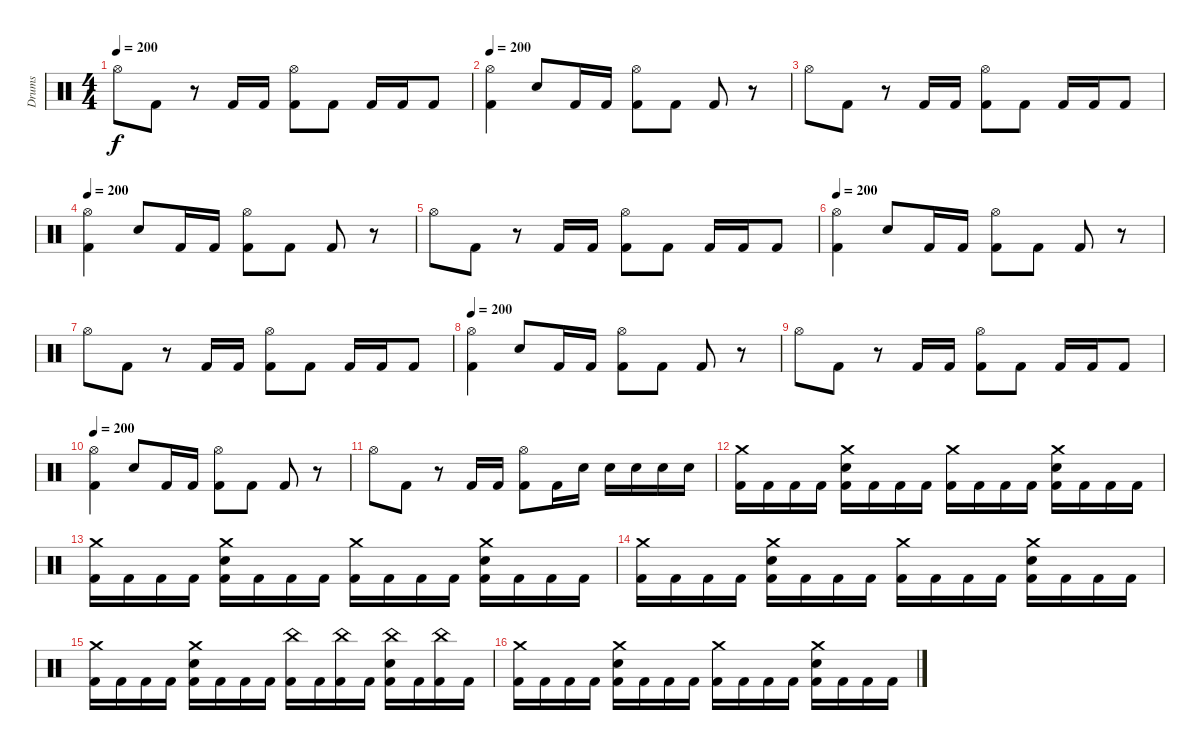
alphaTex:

\track ("Drums" "Drums") {instrument percussion}
\staff {score}
\articulation defaults
\ts (4 4)
\tempo 200
\clef neutral
\ks c "Hi-Hat (open)".8{dy f} "Kick (hit) 2".8
r.8 "Kick (hit) 2".16 "Kick (hit) 2".16 ("Hi-Hat (open)" "Kick (hit) 2").8 "Kick (hit) 2".8 "Kick (hit) 2".16 "Kick (hit) 2".16 "Kick (hit) 2".8 |
\tempo 200
("Hi-Hat (open)" "Kick (hit) 2").4 "Electric Snare (hit)".8 "Kick (hit) 2".16 "Kick (hit) 2".16 ("Hi-Hat (open)" "Kick (hit) 2").8 "Kick (hit) 2".8 "Kick (hit) 2".8 r.8 |
"Hi-Hat (open)".8 "Kick (hit) 2".8 r.8 "Kick (hit) 2".16 "Kick (hit) 2".16 ("Hi-Hat (open)" "Kick (hit) 2").8 "Kick (hit) 2".8 "Kick (hit) 2".16 "Kick (hit) 2".16 "Kick (hit) 2".8 |
\tempo 200
("Hi-Hat (open)" "Kick (hit) 2").4 "Electric Snare (hit)".8 "Kick (hit) 2".16 "Kick (hit) 2".16 ("Hi-Hat (open)" "Kick (hit) 2").8 "Kick (hit) 2".8 "Kick (hit) 2".8 r.8 |
"Hi-Hat (open)".8 "Kick (hit) 2".8 r.8 "Kick (hit) 2".16 "Kick (hit) 2".16 ("Hi-Hat (open)" "Kick (hit) 2").8 "Kick (hit) 2".8 "Kick (hit) 2".16 "Kick (hit) 2".16 "Kick (hit) 2".8 |
\tempo 200
("Hi-Hat (open)" "Kick (hit) 2").4 "Electric Snare (hit)".8 "Kick (hit) 2".16 "Kick (hit) 2".16 ("Hi-Hat (open)" "Kick (hit) 2").8 "Kick (hit) 2".8 "Kick (hit) 2".8 r.8 |
"Hi-Hat (open)".8 "Kick (hit) 2".8 r.8 "Kick (hit) 2".16 "Kick (hit) 2".16 ("Hi-Hat (open)" "Kick (hit) 2").8 "Kick (hit) 2".8 "Kick (hit) 2".16 "Kick (hit) 2".16 "Kick (hit) 2".8 |
\tempo 200
("Hi-Hat (open)" "Kick (hit) 2").4 "Electric Snare (hit)".8 "Kick (hit) 2".16 "Kick (hit) 2".16 ("Hi-Hat (open)" "Kick (hit) 2").8 "Kick (hit) 2".8 "Kick (hit) 2".8 r.8 |
"Hi-Hat (open)".8 "Kick (hit) 2".8 r.8 "Kick (hit) 2".16 "Kick (hit) 2".16 ("Hi-Hat (open)" "Kick (hit) 2").8 "Kick (hit) 2".8 "Kick (hit) 2".16 "Kick (hit) 2".16 "Kick (hit) 2".8 |
\tempo 200
("Hi-Hat (open)" "Kick (hit) 2").4 "Electric Snare (hit)".8 "Kick (hit) 2".16 "Kick (hit) 2".16 ("Hi-Hat (open)" "Kick (hit) 2").8 "Kick (hit) 2".8 "Kick (hit) 2".8 r.8 |
"Hi-Hat (open)".8 "Kick (hit) 2".8 r.8 "Kick (hit) 2".16 "Kick (hit) 2".16 ("Hi-Hat (open)" "Kick (hit) 2").8 "Kick (hit) 2".16 "Electric Snare (hit)".16 "Electric Snare (hit)".16 "Electric Snare (hit)".16 "Electric Snare (hit)".16 "Electric Snare (hit)".16 |
("Crash medium (hit)" "Kick (hit) 2").16 "Kick (hit) 2".16 "Kick (hit) 2".16 "Kick (hit) 2".16 ("Crash medium (hit)" "Electric Snare (hit)" "Kick (hit) 2").16 "Kick (hit) 2".16 "Kick (hit) 2".16 "Kick (hit) 2".16 ("Crash medium (hit)" "Kick (hit) 2").16 "Kick (hit) 2".16 "Kick (hit) 2".16 "Kick (hit) 2".16 ("Crash medium (hit)" "Electric Snare (hit)" "Kick (hit) 2").16 "Kick (hit) 2".16 "Kick (hit) 2".16 "Kick (hit) 2".16 |
("Crash medium (hit)" "Kick (hit) 2").16 "Kick (hit) 2".16 "Kick (hit) 2".16 "Kick (hit) 2".16 ("Crash medium (hit)" "Electric Snare (hit)" "Kick (hit) 2").16 "Kick (hit) 2".16 "Kick (hit) 2".16 "Kick (hit) 2".16 ("Crash medium (hit)" "Kick (hit) 2").16 "Kick (hit) 2".16 "Kick (hit) 2".16 "Kick (hit) 2".16 ("Crash medium (hit)" "Electric Snare (hit)" "Kick (hit) 2").16 "Kick (hit) 2".16 "Kick (hit) 2".16 "Kick (hit) 2".16 |
("Crash medium (hit)" "Kick (hit) 2").16 "Kick (hit) 2".16 "Kick (hit) 2".16 "Kick (hit) 2".16 ("Crash medium (hit)" "Electric Snare (hit)" "Kick (hit) 2").16 "Kick (hit) 2".16 "Kick (hit) 2".16 "Kick (hit) 2".16 ("Crash medium (hit)" "Kick (hit) 2").16 "Kick (hit) 2".16 "Kick (hit) 2".16 "Kick (hit) 2".16 ("Crash medium (hit)" "Electric Snare (hit)" "Kick (hit) 2").16 "Kick (hit) 2".16 "Kick (hit) 2".16 "Kick (hit) 2".16 |
("Crash medium (hit)" "Kick (hit) 2").16 "Kick (hit) 2".16 "Kick (hit) 2".16 "Kick (hit) 2".16 ("Crash medium (hit)" "Electric Snare (hit)" "Kick (hit) 2").16 "Kick (hit) 2".16 "Kick (hit) 2".16 "Kick (hit) 2".16 ("China (hit)" "Kick (hit) 2").16 "Kick (hit) 2".16 ("China (hit)" "Kick (hit) 2").16 "Kick (hit) 2".16 ("China (hit)" "Electric Snare (hit)" "Kick (hit) 2").16 "Kick (hit) 2".16 ("China (hit)" "Kick (hit) 2").16 "Kick (hit) 2".16 |
("Crash medium (hit)" "Kick (hit) 2").16 "Kick (hit) 2".16 "Kick (hit) 2".16 "Kick (hit) 2".16 ("Crash medium (hit)" "Electric Snare (hit)" "Kick (hit) 2").16 "Kick (hit) 2".16 "Kick (hit) 2".16 "Kick (hit) 2".16 ("Crash medium (hit)" "Kick (hit) 2").16 "Kick (hit) 2".16 "Kick (hit) 2".16 "Kick (hit) 2".16 ("Crash medium (hit)" "Electric Snare (hit)" "Kick (hit) 2").16 "Kick (hit) 2".16 "Kick (hit) 2".16 "Kick (hit) 2".16
